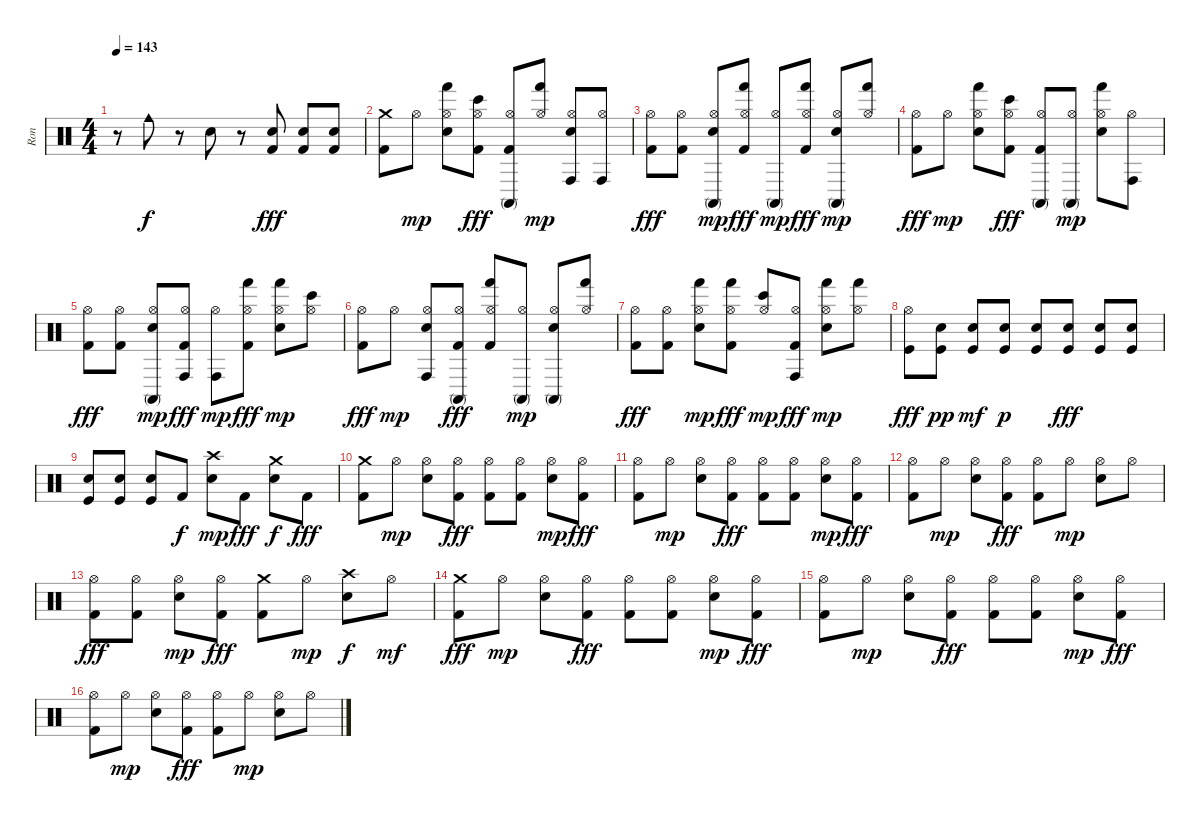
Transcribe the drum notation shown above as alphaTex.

\track ("Ron" "Ron") {instrument percussion}
\staff {score}
\articulation defaults
\ts (4 4)
\tempo 143
\clef neutral
\ks c
r.8{dy f} "Cowbell medium (hit)".8 r.8 "Snare (hit) 2".8 r.8 ("Snare (hit) 2" "Kick (hit) 2").8{dy fff} ("Snare (hit) 2" "Kick (hit) 2").8 ("Snare (hit) 2" "Kick (hit) 2").8 |
("Crash medium (hit)" "Kick (hit) 2").8 "Hi-Hat (open)".8{dy mp} ("Hi-Hat (open)" "Snare (hit) 2" "Hand (hit)").8 ("Hi-Hat (open)" "Kick (hit) 2" "Bongo High (hit)").8{dy fff} ("Hi-Hat (open)" "Kick (hit) 2" "Conga high (mute)").8 ("Hi-Hat (open)" "Hand (hit)").8{dy mp} ("Hi-Hat (open)" "Snare (hit) 2" "Conga high (hit)").8 ("Hi-Hat (open)" "Conga high (hit)").8 |
("Hi-Hat (open)" "Kick (hit) 2").8{dy fff} ("Hi-Hat (open)" "Kick (hit) 2").8 ("Hi-Hat (open)" "Snare (hit) 2" "Conga high (mute)").8{dy mp} ("Hi-Hat (open)" "Kick (hit) 2" "Hand (hit)").8{dy fff} ("Hi-Hat (open)" "Conga high (mute)").8{dy mp} ("Hi-Hat (open)" "Kick (hit) 2" "Hand (hit)").8{dy fff} ("Hi-Hat (open)" "Snare (hit) 2" "Conga high (mute)").8{dy mp} ("Hi-Hat (open)" "Hand (hit)").8 |
("Hi-Hat (open)" "Kick (hit) 2").8{dy fff} "Hi-Hat (open)".8{dy mp} ("Hi-Hat (open)" "Snare (hit) 2" "Hand (hit)").8 ("Hi-Hat (open)" "Kick (hit) 2" "Bongo High (hit)").8{dy fff} ("Hi-Hat (open)" "Kick (hit) 2" "Conga high (mute)").8 ("Hi-Hat (open)" "Conga high (mute)").8{dy mp} ("Hi-Hat (open)" "Snare (hit) 2" "Hand (hit)").8 ("Hi-Hat (open)" "Conga high (hit)").8 |
("Hi-Hat (open)" "Kick (hit) 2").8{dy fff} ("Hi-Hat (open)" "Kick (hit) 2").8 ("Hi-Hat (open)" "Snare (hit) 2" "Conga high (mute)").8{dy mp} ("Hi-Hat (open)" "Kick (hit) 2" "Conga high (hit)").8{dy fff} ("Hi-Hat (open)" "Conga high (hit)").8{dy mp} ("Hi-Hat (open)" "Kick (hit) 2" "Hand (hit)").8{dy fff} ("Hi-Hat (open)" "Snare (hit) 2" "Hand (hit)").8{dy mp} ("Hi-Hat (open)" "Bongo High (hit)").8 |
("Hi-Hat (open)" "Kick (hit) 2").8{dy fff} "Hi-Hat (open)".8{dy mp} ("Hi-Hat (open)" "Snare (hit) 2" "Conga high (hit)").8 ("Hi-Hat (open)" "Kick (hit) 2" "Conga high (mute)").8{dy fff} ("Hi-Hat (open)" "Kick (hit) 2" "Hand (hit)").8 ("Hi-Hat (open)" "Conga high (mute)").8{dy mp} ("Hi-Hat (open)" "Snare (hit) 2" "Conga high (mute)").8 ("Hi-Hat (open)" "Hand (hit)").8 |
("Hi-Hat (open)" "Kick (hit) 2").8{dy fff} ("Hi-Hat (open)" "Kick (hit) 2").8 ("Hi-Hat (open)" "Snare (hit) 2" "Hand (hit)").8{dy mp} ("Hi-Hat (open)" "Kick (hit) 2" "Hand (hit)").8{dy fff} ("Hi-Hat (open)" "Bongo High (hit)").8{dy mp} ("Hi-Hat (open)" "Kick (hit) 2" "Conga high (hit)").8{dy fff} ("Hi-Hat (open)" "Snare (hit) 2" "Hand (hit)").8{dy mp} ("Hi-Hat (open)" "Hand (hit)").8 |
("Hi-Hat (open)" "Kick (hit)").8{dy fff} ("Snare (hit) 2" "Kick (hit)").8{dy pp} ("Snare (hit) 2" "Kick (hit)").8{dy mf} ("Snare (hit) 2" "Kick (hit)").8{dy p} ("Snare (hit) 2" "Kick (hit)").8 ("Snare (hit) 2" "Kick (hit)").8{dy fff} ("Snare (hit) 2" "Kick (hit)").8 ("Snare (hit) 2" "Kick (hit)").8 |
("Snare (hit) 2" "Kick (hit)").8 ("Snare (hit) 2" "Kick (hit)").8 ("Snare (hit) 2" "Kick (hit)").8 "Kick (hit) 2".8{dy f} ("Snare (hit) 2" "Crash high (hit)").8{dy mp} "Kick (hit) 2".8{dy fff} ("Snare (hit) 2" "Crash medium (hit)").8{dy f} "Kick (hit) 2".8{dy fff} |
("Crash medium (hit)" "Kick (hit) 2").8 "Hi-Hat (open)".8{dy mp} ("Hi-Hat (open)" "Snare (hit) 2").8 ("Hi-Hat (open)" "Kick (hit) 2").8{dy fff} ("Hi-Hat (open)" "Kick (hit) 2").8 ("Hi-Hat (open)" "Kick (hit) 2").8 ("Hi-Hat (open)" "Snare (hit) 2").8{dy mp} ("Hi-Hat (open)" "Kick (hit) 2").8{dy fff} |
("Hi-Hat (open)" "Kick (hit) 2").8 "Hi-Hat (open)".8{dy mp} ("Hi-Hat (open)" "Snare (hit) 2").8 ("Hi-Hat (open)" "Kick (hit) 2").8{dy fff} ("Hi-Hat (open)" "Kick (hit) 2").8 ("Hi-Hat (open)" "Kick (hit) 2").8 ("Hi-Hat (open)" "Snare (hit) 2").8{dy mp} ("Hi-Hat (open)" "Kick (hit) 2").8{dy fff} |
("Hi-Hat (open)" "Kick (hit) 2").8 "Hi-Hat (open)".8{dy mp} ("Hi-Hat (open)" "Snare (hit) 2").8 ("Hi-Hat (open)" "Kick (hit) 2").8{dy fff} ("Hi-Hat (open)" "Kick (hit) 2").8 "Hi-Hat (open)".8{dy mp} ("Hi-Hat (open)" "Snare (hit) 2").8 "Hi-Hat (open)".8 |
("Hi-Hat (open)" "Kick (hit) 2").8{dy fff} ("Hi-Hat (open)" "Kick (hit) 2").8 ("Hi-Hat (open)" "Snare (hit) 2").8{dy mp} ("Hi-Hat (open)" "Kick (hit) 2").8{dy fff} ("Crash medium (hit)" "Kick (hit) 2").8 "Hi-Hat (open)".8{dy mp} ("Crash high (hit)" "Snare (hit) 2").8{dy f} "Hi-Hat (open)".8{dy mf} |
("Crash medium (hit)" "Kick (hit) 2").8{dy fff} "Hi-Hat (open)".8{dy mp} ("Hi-Hat (open)" "Snare (hit) 2").8 ("Hi-Hat (open)" "Kick (hit) 2").8{dy fff} ("Hi-Hat (open)" "Kick (hit) 2").8 ("Hi-Hat (open)" "Kick (hit) 2").8 ("Hi-Hat (open)" "Snare (hit) 2").8{dy mp} ("Hi-Hat (open)" "Kick (hit) 2").8{dy fff} |
("Hi-Hat (open)" "Kick (hit) 2").8 "Hi-Hat (open)".8{dy mp} ("Hi-Hat (open)" "Snare (hit) 2").8 ("Hi-Hat (open)" "Kick (hit) 2").8{dy fff} ("Hi-Hat (open)" "Kick (hit) 2").8 ("Hi-Hat (open)" "Kick (hit) 2").8 ("Hi-Hat (open)" "Snare (hit) 2").8{dy mp} ("Hi-Hat (open)" "Kick (hit) 2").8{dy fff} |
("Hi-Hat (open)" "Kick (hit) 2").8 "Hi-Hat (open)".8{dy mp} ("Hi-Hat (open)" "Snare (hit) 2").8 ("Hi-Hat (open)" "Kick (hit) 2").8{dy fff} ("Hi-Hat (open)" "Kick (hit) 2").8 "Hi-Hat (open)".8{dy mp} ("Hi-Hat (open)" "Snare (hit) 2").8 "Hi-Hat (open)".8
